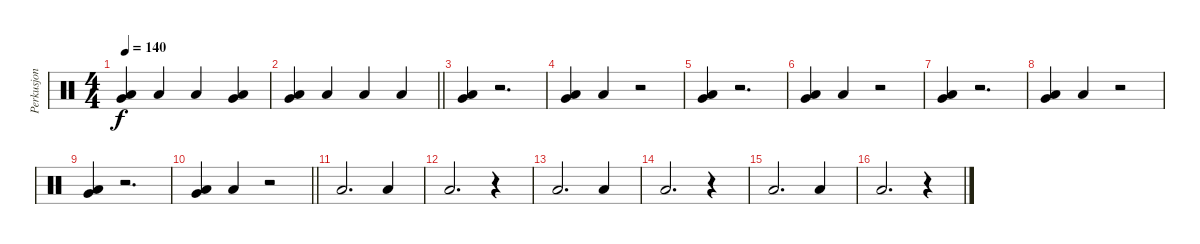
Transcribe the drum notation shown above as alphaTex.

\track ("Perkusjon" "Perkusjon") {instrument percussion}
\staff {score}
\articulation defaults
\ts (4 4)
\tempo 140
\clef neutral
\ks c
("Very Low Tom (hit)" "Low Floor Tom (hit)").4{dy f} "Low Floor Tom (hit)".4 "Low Floor Tom (hit)".4 ("Very Low Tom (hit)" "Low Floor Tom (hit)").4 |
\barLineRight lightlight
("Very Low Tom (hit)" "Low Floor Tom (hit)").4 "Low Floor Tom (hit)".4 "Low Floor Tom (hit)".4 "Low Floor Tom (hit)".4 |
\section ("" "")
("Very Low Tom (hit)" "Low Floor Tom (hit)").4 r.2{d} |
("Very Low Tom (hit)" "Low Floor Tom (hit)").4 "Low Floor Tom (hit)".4 r.2 |
("Very Low Tom (hit)" "Low Floor Tom (hit)").4 r.2{d} |
("Very Low Tom (hit)" "Low Floor Tom (hit)").4 "Low Floor Tom (hit)".4 r.2 |
("Very Low Tom (hit)" "Low Floor Tom (hit)").4 r.2{d} |
("Very Low Tom (hit)" "Low Floor Tom (hit)").4 "Low Floor Tom (hit)".4 r.2 |
("Very Low Tom (hit)" "Low Floor Tom (hit)").4 r.2{d} |
\barLineRight lightlight
("Very Low Tom (hit)" "Low Floor Tom (hit)").4 "Low Floor Tom (hit)".4 r.2 |
\section ("" "")
"Low Floor Tom (hit)".2{d} "Low Floor Tom (hit)".4 |
"Low Floor Tom (hit)".2{d} r.4 |
"Low Floor Tom (hit)".2{d} "Low Floor Tom (hit)".4 |
"Low Floor Tom (hit)".2{d} r.4 |
"Low Floor Tom (hit)".2{d} "Low Floor Tom (hit)".4 |
"Low Floor Tom (hit)".2{d} r.4
